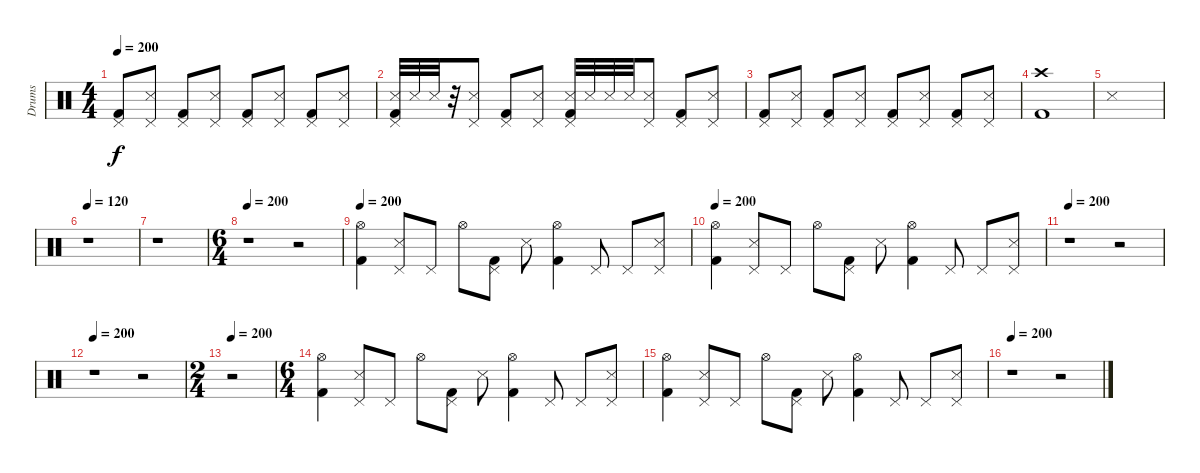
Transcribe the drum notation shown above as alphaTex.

\track ("Drums" "Drums") {instrument percussion}
\staff {score}
\articulation defaults
\ts (4 4)
\tempo 200
\clef neutral
\ks c
("Pedal Hi-Hat (hit)" "Kick (hit) 2").8{dy f} ("Pedal Hi-Hat (hit)" "Metronome (hit)").8 ("Pedal Hi-Hat (hit)" "Kick (hit) 2").8 ("Pedal Hi-Hat (hit)" "Metronome (hit)").8 ("Pedal Hi-Hat (hit)" "Kick (hit) 2").8 ("Pedal Hi-Hat (hit)" "Metronome (hit)").8 ("Pedal Hi-Hat (hit)" "Kick (hit) 2").8 ("Pedal Hi-Hat (hit)" "Metronome (hit)").8 |
("Pedal Hi-Hat (hit)" "Metronome (hit)" "Kick (hit) 2").32 "Metronome (hit)".32 "Metronome (hit)".32 r.32 ("Pedal Hi-Hat (hit)" "Metronome (hit)").8 ("Pedal Hi-Hat (hit)" "Kick (hit) 2").8 ("Pedal Hi-Hat (hit)" "Metronome (hit)").8 ("Metronome (hit)" "Pedal Hi-Hat (hit)" "Kick (hit) 2").32 "Metronome (hit)".32 "Metronome (hit)".32 "Metronome (hit)".32 ("Pedal Hi-Hat (hit)" "Metronome (hit)").8 ("Pedal Hi-Hat (hit)" "Kick (hit) 2").8 ("Pedal Hi-Hat (hit)" "Metronome (hit)").8 |
("Pedal Hi-Hat (hit)" "Kick (hit) 2").8 ("Pedal Hi-Hat (hit)" "Metronome (hit)").8 ("Pedal Hi-Hat (hit)" "Kick (hit) 2").8 ("Pedal Hi-Hat (hit)" "Metronome (hit)").8 ("Pedal Hi-Hat (hit)" "Kick (hit) 2").8 ("Pedal Hi-Hat (hit)" "Metronome (hit)").8 ("Pedal Hi-Hat (hit)" "Kick (hit) 2").8 ("Pedal Hi-Hat (hit)" "Metronome (hit)").8 |
("Crash high (hit)" "Kick (hit) 2").1 |
"Metronome (hit)".1 |
\tempo 120
r.1 |
r.1 |
\ts (6 4)
\tempo 200
r.1 r.2 |
\tempo 200
("Hi-Hat (open)" "Kick (hit) 2").4 ("Pedal Hi-Hat (hit)" "Metronome (hit)").8 "Pedal Hi-Hat (hit)".8 "Hi-Hat (open)".8 ("Pedal Hi-Hat (hit)" "Kick (hit) 2").8 "Metronome (hit)".8 ("Hi-Hat (open)" "Kick (hit) 2").4 "Pedal Hi-Hat (hit)".8 "Pedal Hi-Hat (hit)".8 ("Pedal Hi-Hat (hit)" "Metronome (hit)").8 |
\tempo 200
("Hi-Hat (open)" "Kick (hit) 2").4 ("Pedal Hi-Hat (hit)" "Metronome (hit)").8 "Pedal Hi-Hat (hit)".8 "Hi-Hat (open)".8 ("Pedal Hi-Hat (hit)" "Kick (hit) 2").8 "Metronome (hit)".8 ("Hi-Hat (open)" "Kick (hit) 2").4 "Pedal Hi-Hat (hit)".8 "Pedal Hi-Hat (hit)".8 ("Pedal Hi-Hat (hit)" "Metronome (hit)").8 |
\tempo 200
r.1 r.2 |
\tempo 200
r.1 r.2 |
\ts (2 4)
\tempo 200
r.2 |
\ts (6 4)
("Hi-Hat (open)" "Kick (hit) 2").4 ("Pedal Hi-Hat (hit)" "Metronome (hit)").8 "Pedal Hi-Hat (hit)".8 "Hi-Hat (open)".8 ("Pedal Hi-Hat (hit)" "Kick (hit) 2").8 "Metronome (hit)".8 ("Hi-Hat (open)" "Kick (hit) 2").4 "Pedal Hi-Hat (hit)".8 "Pedal Hi-Hat (hit)".8 ("Pedal Hi-Hat (hit)" "Metronome (hit)").8 |
("Hi-Hat (open)" "Kick (hit) 2").4 ("Pedal Hi-Hat (hit)" "Metronome (hit)").8 "Pedal Hi-Hat (hit)".8 "Hi-Hat (open)".8 ("Pedal Hi-Hat (hit)" "Kick (hit) 2").8 "Metronome (hit)".8 ("Hi-Hat (open)" "Kick (hit) 2").4 "Pedal Hi-Hat (hit)".8 "Pedal Hi-Hat (hit)".8 ("Pedal Hi-Hat (hit)" "Metronome (hit)").8 |
\tempo 200
r.1 r.2
